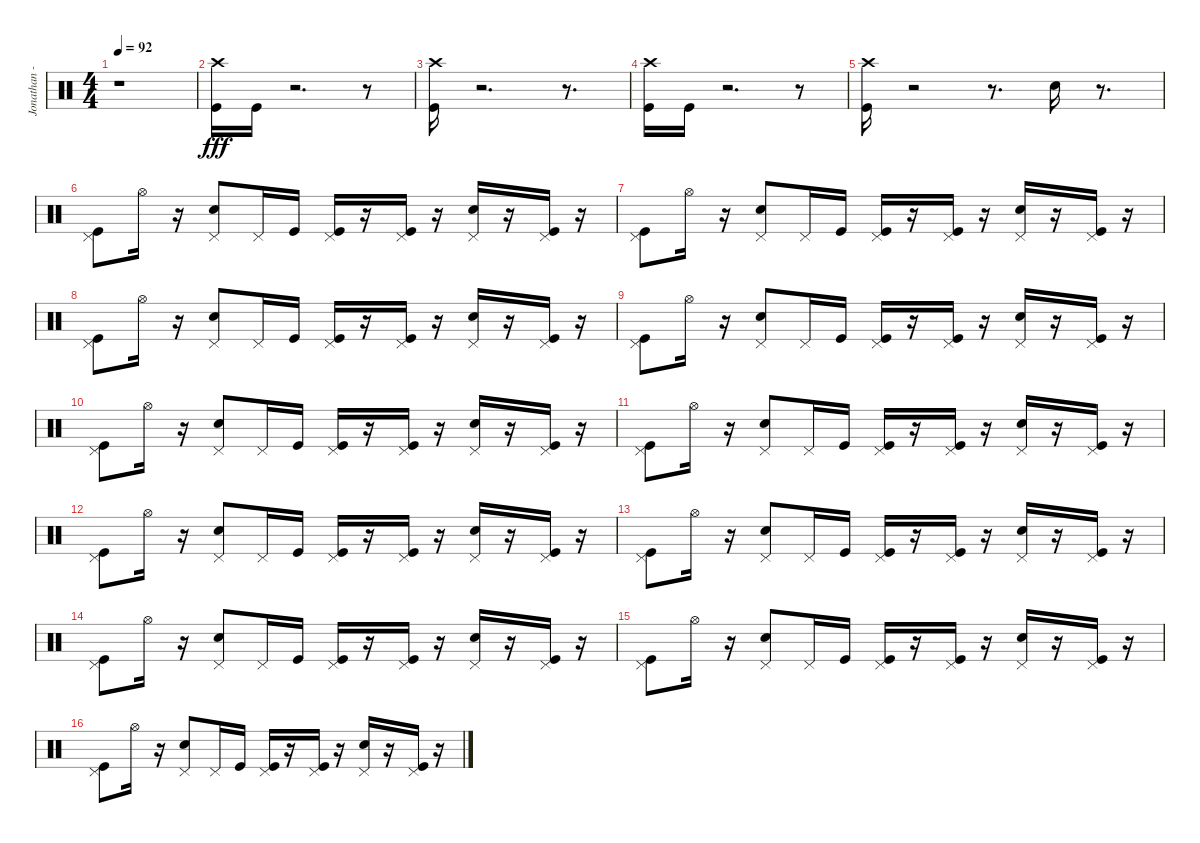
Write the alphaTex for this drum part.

\track ("Jonathan - Drums" "Jonathan -") {instrument percussion}
\staff {score}
\articulation defaults
\ts (4 4)
\tempo 92
\clef neutral
\ks c
r.1{dy fff} |
("Crash high (hit)" "Kick (hit)").16 "Kick (hit)".16 r.2{d} r.8 |
("Crash high (hit)" "Kick (hit)").16 r.2{d} r.8{d} |
("Crash high (hit)" "Kick (hit)").16 "Kick (hit)".16 r.2{d} r.8 |
("Kick (hit)" "Crash high (hit)").16 r.2 r.8{d} "Electric Snare (hit)".16 r.8{d} |
("Kick (hit)" "Pedal Hi-Hat (hit)").8 "Hi-Hat (open)".16 r.16 ("Electric Snare (hit)" "Pedal Hi-Hat (hit)").8 "Pedal Hi-Hat (hit)".16 "Kick (hit)".16 ("Kick (hit)" "Pedal Hi-Hat (hit)").16 r.16 ("Kick (hit)" "Pedal Hi-Hat (hit)").16 r.16 ("Electric Snare (hit)" "Pedal Hi-Hat (hit)").16 r.16 ("Kick (hit)" "Pedal Hi-Hat (hit)").16 r.16 |
("Kick (hit)" "Pedal Hi-Hat (hit)").8 "Hi-Hat (open)".16 r.16 ("Electric Snare (hit)" "Pedal Hi-Hat (hit)").8 "Pedal Hi-Hat (hit)".16 "Kick (hit)".16 ("Kick (hit)" "Pedal Hi-Hat (hit)").16 r.16 ("Kick (hit)" "Pedal Hi-Hat (hit)").16 r.16 ("Electric Snare (hit)" "Pedal Hi-Hat (hit)").16 r.16 ("Kick (hit)" "Pedal Hi-Hat (hit)").16 r.16 |
("Kick (hit)" "Pedal Hi-Hat (hit)").8 "Hi-Hat (open)".16 r.16 ("Electric Snare (hit)" "Pedal Hi-Hat (hit)").8 "Pedal Hi-Hat (hit)".16 "Kick (hit)".16 ("Kick (hit)" "Pedal Hi-Hat (hit)").16 r.16 ("Kick (hit)" "Pedal Hi-Hat (hit)").16 r.16 ("Electric Snare (hit)" "Pedal Hi-Hat (hit)").16 r.16 ("Kick (hit)" "Pedal Hi-Hat (hit)").16 r.16 |
("Kick (hit)" "Pedal Hi-Hat (hit)").8 "Hi-Hat (open)".16 r.16 ("Electric Snare (hit)" "Pedal Hi-Hat (hit)").8 "Pedal Hi-Hat (hit)".16 "Kick (hit)".16 ("Kick (hit)" "Pedal Hi-Hat (hit)").16 r.16 ("Kick (hit)" "Pedal Hi-Hat (hit)").16 r.16 ("Electric Snare (hit)" "Pedal Hi-Hat (hit)").16 r.16 ("Kick (hit)" "Pedal Hi-Hat (hit)").16 r.16 |
("Kick (hit)" "Pedal Hi-Hat (hit)").8 "Hi-Hat (open)".16 r.16 ("Electric Snare (hit)" "Pedal Hi-Hat (hit)").8 "Pedal Hi-Hat (hit)".16 "Kick (hit)".16 ("Kick (hit)" "Pedal Hi-Hat (hit)").16 r.16 ("Kick (hit)" "Pedal Hi-Hat (hit)").16 r.16 ("Electric Snare (hit)" "Pedal Hi-Hat (hit)").16 r.16 ("Kick (hit)" "Pedal Hi-Hat (hit)").16 r.16 |
("Kick (hit)" "Pedal Hi-Hat (hit)").8 "Hi-Hat (open)".16 r.16 ("Electric Snare (hit)" "Pedal Hi-Hat (hit)").8 "Pedal Hi-Hat (hit)".16 "Kick (hit)".16 ("Kick (hit)" "Pedal Hi-Hat (hit)").16 r.16 ("Kick (hit)" "Pedal Hi-Hat (hit)").16 r.16 ("Electric Snare (hit)" "Pedal Hi-Hat (hit)").16 r.16 ("Kick (hit)" "Pedal Hi-Hat (hit)").16 r.16 |
("Kick (hit)" "Pedal Hi-Hat (hit)").8 "Hi-Hat (open)".16 r.16 ("Electric Snare (hit)" "Pedal Hi-Hat (hit)").8 "Pedal Hi-Hat (hit)".16 "Kick (hit)".16 ("Kick (hit)" "Pedal Hi-Hat (hit)").16 r.16 ("Kick (hit)" "Pedal Hi-Hat (hit)").16 r.16 ("Electric Snare (hit)" "Pedal Hi-Hat (hit)").16 r.16 ("Kick (hit)" "Pedal Hi-Hat (hit)").16 r.16 |
("Kick (hit)" "Pedal Hi-Hat (hit)").8 "Hi-Hat (open)".16 r.16 ("Electric Snare (hit)" "Pedal Hi-Hat (hit)").8 "Pedal Hi-Hat (hit)".16 "Kick (hit)".16 ("Kick (hit)" "Pedal Hi-Hat (hit)").16 r.16 ("Kick (hit)" "Pedal Hi-Hat (hit)").16 r.16 ("Electric Snare (hit)" "Pedal Hi-Hat (hit)").16 r.16 ("Kick (hit)" "Pedal Hi-Hat (hit)").16 r.16 |
("Kick (hit)" "Pedal Hi-Hat (hit)").8 "Hi-Hat (open)".16 r.16 ("Electric Snare (hit)" "Pedal Hi-Hat (hit)").8 "Pedal Hi-Hat (hit)".16 "Kick (hit)".16 ("Kick (hit)" "Pedal Hi-Hat (hit)").16 r.16 ("Kick (hit)" "Pedal Hi-Hat (hit)").16 r.16 ("Electric Snare (hit)" "Pedal Hi-Hat (hit)").16 r.16 ("Kick (hit)" "Pedal Hi-Hat (hit)").16 r.16 |
("Kick (hit)" "Pedal Hi-Hat (hit)").8 "Hi-Hat (open)".16 r.16 ("Electric Snare (hit)" "Pedal Hi-Hat (hit)").8 "Pedal Hi-Hat (hit)".16 "Kick (hit)".16 ("Kick (hit)" "Pedal Hi-Hat (hit)").16 r.16 ("Kick (hit)" "Pedal Hi-Hat (hit)").16 r.16 ("Electric Snare (hit)" "Pedal Hi-Hat (hit)").16 r.16 ("Kick (hit)" "Pedal Hi-Hat (hit)").16 r.16 |
("Kick (hit)" "Pedal Hi-Hat (hit)").8 "Hi-Hat (open)".16 r.16 ("Electric Snare (hit)" "Pedal Hi-Hat (hit)").8 "Pedal Hi-Hat (hit)".16 "Kick (hit)".16 ("Kick (hit)" "Pedal Hi-Hat (hit)").16 r.16 ("Kick (hit)" "Pedal Hi-Hat (hit)").16 r.16 ("Electric Snare (hit)" "Pedal Hi-Hat (hit)").16 r.16 ("Kick (hit)" "Pedal Hi-Hat (hit)").16 r.16
